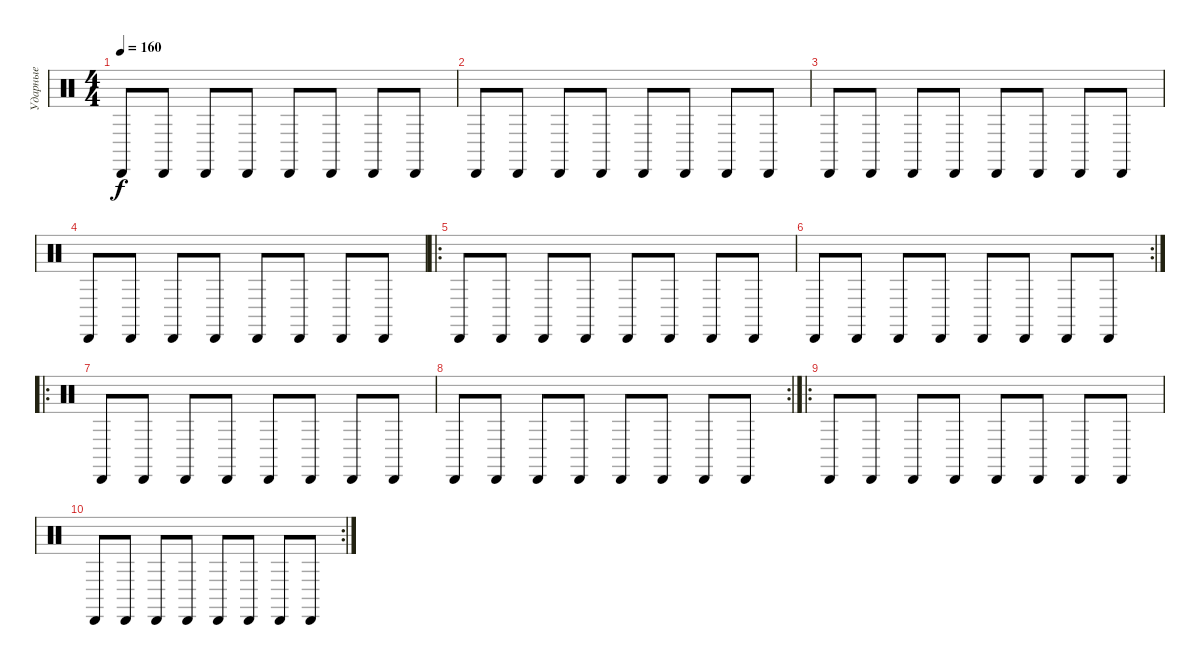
\track ("Ударные" "Ударные") {instrument percussion}
\staff {score}
\articulation defaults
\ts (4 4)
\tempo 160
\clef neutral
\ks c "Cabasa (hit)".8{dy f} "Cabasa (hit)".8 "Cabasa (hit)".8 "Cabasa (hit)".8 "Cabasa (hit)".8 "Cabasa (hit)".8 "Cabasa (hit)".8 "Cabasa (hit)".8
|
"Cabasa (hit)".8 "Cabasa (hit)".8 "Cabasa (hit)".8 "Cabasa (hit)".8 "Cabasa (hit)".8 "Cabasa (hit)".8 "Cabasa (hit)".8 "Cabasa (hit)".8 |
"Cabasa (hit)".8 "Cabasa (hit)".8 "Cabasa (hit)".8 "Cabasa (hit)".8 "Cabasa (hit)".8 "Cabasa (hit)".8 "Cabasa (hit)".8 "Cabasa (hit)".8 |
"Cabasa (hit)".8 "Cabasa (hit)".8 "Cabasa (hit)".8 "Cabasa (hit)".8 "Cabasa (hit)".8 "Cabasa (hit)".8 "Cabasa (hit)".8 "Cabasa (hit)".8 |
\ro "Cabasa (hit)".8 "Cabasa (hit)".8 "Cabasa (hit)".8 "Cabasa (hit)".8 "Cabasa (hit)".8 "Cabasa (hit)".8 "Cabasa (hit)".8 "Cabasa (hit)".8
|
\rc 2 "Cabasa (hit)".8 "Cabasa (hit)".8 "Cabasa (hit)".8 "Cabasa (hit)".8 "Cabasa (hit)".8 "Cabasa (hit)".8 "Cabasa (hit)".8 "Cabasa (hit)".8
|
\ro "Cabasa (hit)".8 "Cabasa (hit)".8 "Cabasa (hit)".8 "Cabasa (hit)".8 "Cabasa (hit)".8 "Cabasa (hit)".8 "Cabasa (hit)".8 "Cabasa (hit)".8
|
\rc 2 "Cabasa (hit)".8 "Cabasa (hit)".8 "Cabasa (hit)".8 "Cabasa (hit)".8 "Cabasa (hit)".8 "Cabasa (hit)".8 "Cabasa (hit)".8 "Cabasa (hit)".8
|
\ro "Cabasa (hit)".8 "Cabasa (hit)".8 "Cabasa (hit)".8 "Cabasa (hit)".8 "Cabasa (hit)".8 "Cabasa (hit)".8 "Cabasa (hit)".8 "Cabasa (hit)".8
|
\rc 2 "Cabasa (hit)".8 "Cabasa (hit)".8 "Cabasa (hit)".8 "Cabasa (hit)".8 "Cabasa (hit)".8 "Cabasa (hit)".8 "Cabasa (hit)".8 "Cabasa (hit)".8
